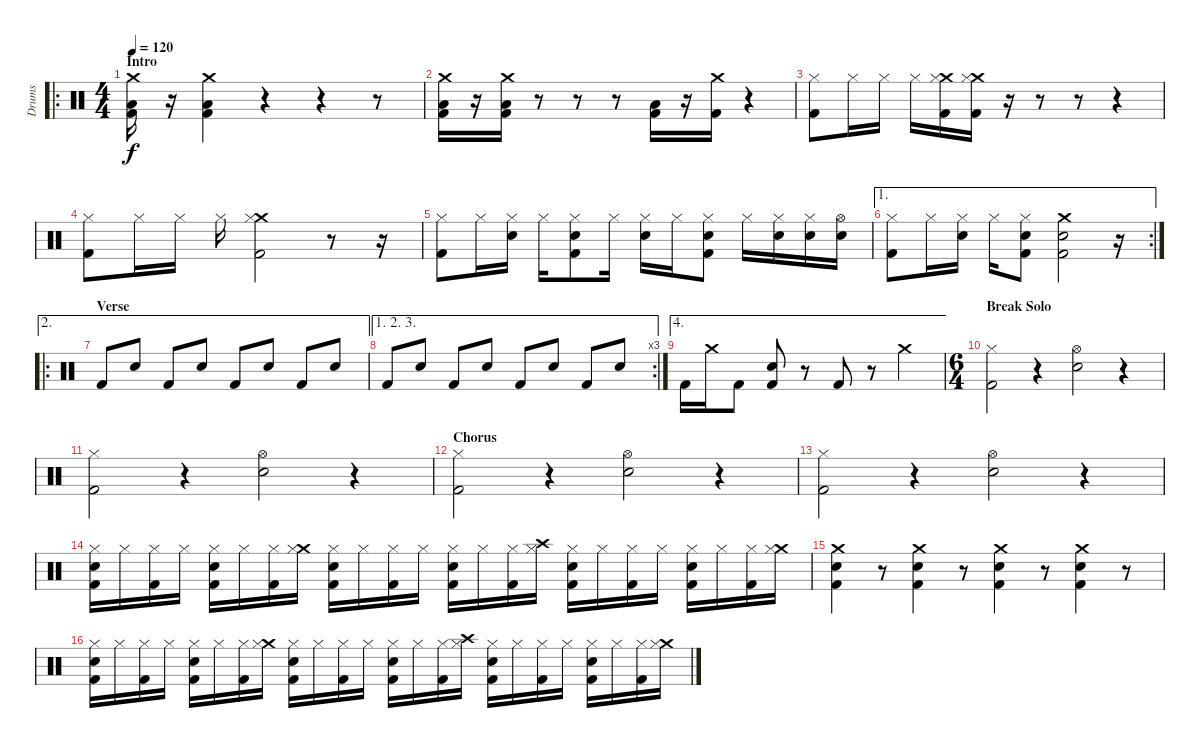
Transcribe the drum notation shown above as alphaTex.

\track ("Drums" "Drums") {instrument percussion}
\staff {score}
\articulation defaults
\ro
\ts (4 4)
\section ("" "Intro")
\tempo 120
\clef neutral
\ks c
("Crash medium (hit)" "Low Tom (hit)" "Kick (hit) 2").16{dy f} r.16 ("Crash medium (hit)" "Low Tom (hit)" "Kick (hit) 2").4 r.4 r.4 r.8 |
("Crash medium (hit)" "Low Tom (hit)" "Kick (hit) 2").16 r.16 ("Crash medium (hit)" "Low Tom (hit)" "Kick (hit) 2").16 r.8 r.8 r.8 ("Low Floor Tom (hit)" "Kick (hit) 2").16 r.16 ("Crash medium (hit)" "Kick (hit) 2").16 r.4 |
("Hi-Hat (closed)" "Kick (hit) 2").8 "Hi-Hat (closed)".16 "Hi-Hat (closed)".16 "Hi-Hat (closed)".16 ("Crash medium (hit)" "Hi-Hat (closed)" "Kick (hit) 2").16 ("Crash medium (hit)" "Hi-Hat (closed)" "Kick (hit) 2").16 r.16 r.8 r.8 r.4 |
("Hi-Hat (closed)" "Kick (hit) 2").8 "Hi-Hat (closed)".16 "Hi-Hat (closed)".16 "Hi-Hat (closed)".16 ("Crash medium (hit)" "Hi-Hat (closed)" "Kick (hit) 2").2 r.8 r.16 |
("Hi-Hat (closed)" "Kick (hit) 2").8 "Hi-Hat (closed)".16 ("Snare (hit) 2" "Hi-Hat (closed)").16 "Hi-Hat (closed)".16 ("Snare (hit) 2" "Hi-Hat (closed)" "Kick (hit) 2").8 "Hi-Hat (closed)".16 ("Snare (hit) 2" "Hi-Hat (closed)").16 "Hi-Hat (closed)".16 ("Snare (hit) 2" "Hi-Hat (closed)" "Kick (hit) 2").8 "Hi-Hat (closed)".16 ("Snare (hit) 2" "Hi-Hat (closed)").16 ("Snare (hit) 2" "Hi-Hat (closed)").16 ("Snare (hit) 2" "Hi-Hat (open)").16 |
\ae 1
\rc 2
("Hi-Hat (closed)" "Kick (hit) 2").8 "Hi-Hat (closed)".16 ("Snare (hit) 2" "Hi-Hat (closed)").16 "Hi-Hat (closed)".16 ("Snare (hit) 2" "Hi-Hat (closed)" "Kick (hit) 2").8 ("Crash medium (hit)" "Snare (hit) 2" "Kick (hit) 2").2 r.16 |
\ae 2
\ro
\section ("" "Verse")
"Kick (hit) 2".8 "Snare (hit) 2".8 "Kick (hit) 2".8 "Snare (hit) 2".8 "Kick (hit) 2".8 "Snare (hit) 2".8 "Kick (hit) 2".8 "Snare (hit) 2".8 |
\ae (1 2 3)
\rc 3 "Kick (hit) 2".8 "Snare (hit) 2".8 "Kick (hit) 2".8 "Snare (hit) 2".8 "Kick (hit) 2".8 "Snare (hit) 2".8 "Kick (hit) 2".8 "Snare (hit) 2".8
|
\ae 4 "Kick (hit) 2".16 "Crash medium (hit)".16 "Kick (hit) 2".8
("Snare (hit) 2" "Kick (hit) 2").8 r.8 "Kick (hit) 2".8 r.8 "Crash medium (hit)".4 |
\ts (6 4)
\section ("" "Break Solo")
("Hi-Hat (closed)" "Kick (hit) 2").2 r.4 ("Hi-Hat (open)" "Snare (hit) 2").2 r.4 |
("Hi-Hat (closed)" "Kick (hit) 2").2 r.4 ("Hi-Hat (open)" "Snare (hit) 2").2 r.4 |
\section ("" "Chorus")
("Hi-Hat (closed)" "Kick (hit) 2").2 r.4 ("Hi-Hat (open)" "Snare (hit) 2").2 r.4 |
("Hi-Hat (closed)" "Kick (hit) 2").2 r.4 ("Hi-Hat (open)" "Snare (hit) 2").2 r.4 |
("Hi-Hat (closed)" "Snare (hit) 2" "Kick (hit) 2").16 "Hi-Hat (closed)".16 ("Hi-Hat (closed)" "Kick (hit) 2").16 "Hi-Hat (closed)".16 ("Hi-Hat (closed)" "Snare (hit) 2" "Kick (hit) 2").16 "Hi-Hat (closed)".16 ("Hi-Hat (closed)" "Kick (hit) 2").16 ("Crash medium (hit)" "Hi-Hat (closed)").16 ("Hi-Hat (closed)" "Snare (hit) 2" "Kick (hit) 2").16 "Hi-Hat (closed)".16 ("Hi-Hat (closed)" "Kick (hit) 2").16 "Hi-Hat (closed)".16 ("Hi-Hat (closed)" "Snare (hit) 2" "Kick (hit) 2").16 "Hi-Hat (closed)".16 ("Hi-Hat (closed)" "Kick (hit) 2").16 ("Crash high (hit)" "Hi-Hat (closed)").16 ("Hi-Hat (closed)" "Snare (hit) 2" "Kick (hit) 2").16 "Hi-Hat (closed)".16 ("Hi-Hat (closed)" "Kick (hit) 2").16 "Hi-Hat (closed)".16 ("Hi-Hat (closed)" "Snare (hit) 2" "Kick (hit) 2").16 "Hi-Hat (closed)".16 ("Hi-Hat (closed)" "Kick (hit) 2").16 ("Crash medium (hit)" "Hi-Hat (closed)").16 |
("Crash medium (hit)" "Snare (hit) 2" "Kick (hit) 2").4 r.8 ("Crash medium (hit)" "Snare (hit) 2" "Kick (hit) 2").4 r.8 ("Crash medium (hit)" "Snare (hit) 2" "Kick (hit) 2").4 r.8 ("Crash medium (hit)" "Snare (hit) 2" "Kick (hit) 2").4 r.8 |
("Hi-Hat (closed)" "Snare (hit) 2" "Kick (hit) 2").16 "Hi-Hat (closed)".16 ("Hi-Hat (closed)" "Kick (hit) 2").16 "Hi-Hat (closed)".16 ("Hi-Hat (closed)" "Snare (hit) 2" "Kick (hit) 2").16 "Hi-Hat (closed)".16 ("Hi-Hat (closed)" "Kick (hit) 2").16 ("Crash medium (hit)" "Hi-Hat (closed)").16 ("Hi-Hat (closed)" "Snare (hit) 2" "Kick (hit) 2").16 "Hi-Hat (closed)".16 ("Hi-Hat (closed)" "Kick (hit) 2").16 "Hi-Hat (closed)".16 ("Hi-Hat (closed)" "Snare (hit) 2" "Kick (hit) 2").16 "Hi-Hat (closed)".16 ("Hi-Hat (closed)" "Kick (hit) 2").16 ("Crash high (hit)" "Hi-Hat (closed)").16 ("Hi-Hat (closed)" "Snare (hit) 2" "Kick (hit) 2").16 "Hi-Hat (closed)".16 ("Hi-Hat (closed)" "Kick (hit) 2").16 "Hi-Hat (closed)".16 ("Hi-Hat (closed)" "Snare (hit) 2" "Kick (hit) 2").16 "Hi-Hat (closed)".16 ("Hi-Hat (closed)" "Kick (hit) 2").16 ("Crash medium (hit)" "Hi-Hat (closed)").16
